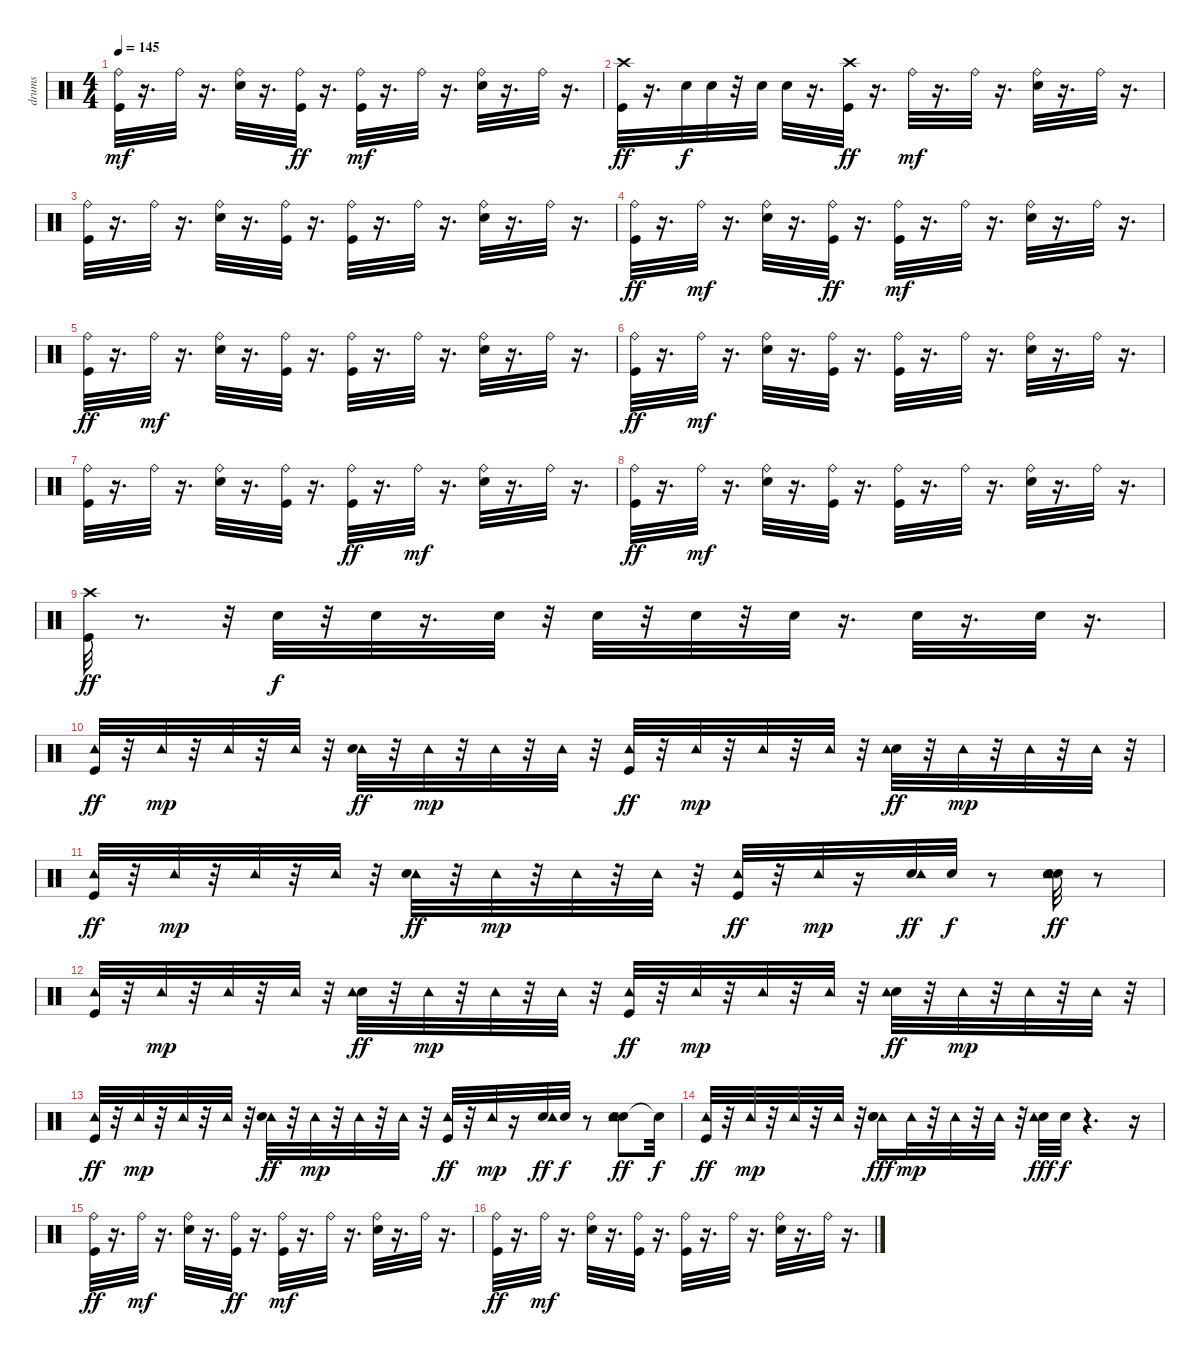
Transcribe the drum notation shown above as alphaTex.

\track ("drums" "drums") {instrument percussion}
\staff {score}
\articulation defaults
\ts (4 4)
\tempo 145
\clef neutral
\ks c
("Kick (hit)" "Ride (bell)").32{dy mf} r.16{d} "Ride (bell)".32 r.16{d} ("Snare (hit) 2" "Ride (bell)").32 r.16{d} ("Ride (bell)" "Kick (hit)").32{dy ff} r.16{d} ("Kick (hit)" "Ride (bell)").32{dy mf} r.16{d} "Ride (bell)".32 r.16{d} ("Snare (hit) 2" "Ride (bell)").32 r.16{d} "Ride (bell)".32 r.16{d} |
("Crash high (hit)" "Kick (hit)").32{dy ff} r.16{d} "Snare (hit) 2".32{dy f} "Snare (hit) 2".32 r.32 "Snare (hit) 2".32 "Snare (hit) 2".32 r.16{d} ("Crash high (hit)" "Kick (hit)").32{dy ff} r.16{d} "Ride (bell)".32{dy mf} r.16{d} "Ride (bell)".32 r.16{d} ("Ride (bell)" "Snare (hit) 2").32 r.16{d} "Ride (bell)".32 r.16{d} |
("Kick (hit)" "Ride (bell)").32 r.16{d} "Ride (bell)".32 r.16{d} ("Snare (hit) 2" "Ride (bell)").32 r.16{d} ("Kick (hit)" "Ride (bell)").32 r.16{d} ("Kick (hit)" "Ride (bell)").32 r.16{d} "Ride (bell)".32 r.16{d} ("Ride (bell)" "Snare (hit) 2").32 r.16{d} "Ride (bell)".32 r.16{d} |
("Ride (bell)" "Kick (hit)").32{dy ff} r.16{d} "Ride (bell)".32{dy mf} r.16{d} ("Ride (bell)" "Snare (hit) 2").32 r.16{d} ("Ride (bell)" "Kick (hit)").32{dy ff} r.16{d} ("Kick (hit)" "Ride (bell)").32{dy mf} r.16{d} "Ride (bell)".32 r.16{d} ("Ride (bell)" "Snare (hit) 2").32 r.16{d} "Ride (bell)".32 r.16{d} |
("Ride (bell)" "Kick (hit)").32{dy ff} r.16{d} "Ride (bell)".32{dy mf} r.16{d} ("Ride (bell)" "Snare (hit) 2").32 r.16{d} ("Kick (hit)" "Ride (bell)").32 r.16{d} ("Kick (hit)" "Ride (bell)").32 r.16{d} "Ride (bell)".32 r.16{d} ("Ride (bell)" "Snare (hit) 2").32 r.16{d} "Ride (bell)".32 r.16{d} |
("Ride (bell)" "Kick (hit)").32{dy ff} r.16{d} "Ride (bell)".32{dy mf} r.16{d} ("Snare (hit) 2" "Ride (bell)").32 r.16{d} ("Kick (hit)" "Ride (bell)").32 r.16{d} ("Kick (hit)" "Ride (bell)").32 r.16{d} "Ride (bell)".32 r.16{d} ("Snare (hit) 2" "Ride (bell)").32 r.16{d} "Ride (bell)".32 r.16{d} |
("Kick (hit)" "Ride (bell)").32 r.16{d} "Ride (bell)".32 r.16{d} ("Snare (hit) 2" "Ride (bell)").32 r.16{d} ("Kick (hit)" "Ride (bell)").32 r.16{d} ("Ride (bell)" "Kick (hit)").32{dy ff} r.16{d} "Ride (bell)".32{dy mf} r.16{d} ("Snare (hit) 2" "Ride (bell)").32 r.16{d} "Ride (bell)".32 r.16{d} |
("Ride (bell)" "Kick (hit)").32{dy ff} r.16{d} "Ride (bell)".32{dy mf} r.16{d} ("Ride (bell)" "Snare (hit) 2").32 r.16{d} ("Kick (hit)" "Ride (bell)").32 r.16{d} ("Kick (hit)" "Ride (bell)").32 r.16{d} "Ride (bell)".32 r.16{d} ("Snare (hit) 2" "Ride (bell)").32 r.16{d} "Ride (bell)".32 r.16{d} |
("Crash high (hit)" "Kick (hit)").32{dy ff} r.8{d} r.32 "Snare (hit) 2".32{dy f} r.32 "Snare (hit) 2".32 r.16{d} "Snare (hit) 2".32 r.32 "Snare (hit) 2".32 r.32 "Snare (hit) 2".32 r.32 "Snare (hit) 2".32 r.16{d} "Snare (hit) 2".32 r.16{d} "Snare (hit) 2".32 r.16{d} |
("Tambourine (hit)" "Kick (hit)").32{dy ff} r.32 "Tambourine (hit)".32{dy mp} r.32 "Tambourine (hit)".32 r.32 "Tambourine (hit)".32 r.32 ("Tambourine (hit)" "Snare (hit) 2").32{dy ff} r.32 "Tambourine (hit)".32{dy mp} r.32 "Tambourine (hit)".32 r.32 "Tambourine (hit)".32 r.32 ("Tambourine (hit)" "Kick (hit)").32{dy ff} r.32 "Tambourine (hit)".32{dy mp} r.32 "Tambourine (hit)".32 r.32 "Tambourine (hit)".32 r.32 ("Snare (hit) 2" "Tambourine (hit)").32{dy ff} r.32 "Tambourine (hit)".32{dy mp} r.32 "Tambourine (hit)".32 r.32 "Tambourine (hit)".32 r.32 |
("Tambourine (hit)" "Kick (hit)").32{dy ff} r.32 "Tambourine (hit)".32{dy mp} r.32 "Tambourine (hit)".32 r.32 "Tambourine (hit)".32 r.32 ("Tambourine (hit)" "Snare (hit) 2").32{dy ff} r.32 "Tambourine (hit)".32{dy mp} r.32 "Tambourine (hit)".32 r.32 "Tambourine (hit)".32 r.32 ("Tambourine (hit)" "Kick (hit)").32{dy ff} r.32 "Tambourine (hit)".32{dy mp} r.16 ("Snare (hit) 2" "Tambourine (hit)").32{dy ff} "Snare (hit) 2".32{dy f} r.8 ("Snare (hit) 2" "Tambourine (hit)" "Snare (hit) 2").32{dy ff} r.8 |
("Tambourine (hit)" "Kick (hit)").32 r.32 "Tambourine (hit)".32{dy mp} r.32 "Tambourine (hit)".32 r.32 "Tambourine (hit)".32 r.32 ("Snare (hit) 2" "Tambourine (hit)").32{dy ff} r.32 "Tambourine (hit)".32{dy mp} r.32 "Tambourine (hit)".32 r.32 "Tambourine (hit)".32 r.32 ("Tambourine (hit)" "Kick (hit)").32{dy ff} r.32 "Tambourine (hit)".32{dy mp} r.32 "Tambourine (hit)".32 r.32 "Tambourine (hit)".32 r.32 ("Snare (hit) 2" "Tambourine (hit)").32{dy ff} r.32 "Tambourine (hit)".32{dy mp} r.32 "Tambourine (hit)".32 r.32 "Tambourine (hit)".32 r.32 |
("Tambourine (hit)" "Kick (hit)").32{dy ff} r.32 "Tambourine (hit)".32{dy mp} r.32 "Tambourine (hit)".32 r.32 "Tambourine (hit)".32 r.32 ("Tambourine (hit)" "Snare (hit) 2").32{dy ff} r.32 "Tambourine (hit)".32{dy mp} r.32 "Tambourine (hit)".32 r.32 "Tambourine (hit)".32 r.32 ("Kick (hit)" "Tambourine (hit)").32{dy ff} r.32 "Tambourine (hit)".32{dy mp} r.16 ("Snare (hit) 2" "Tambourine (hit)").32{dy ff} "Snare (hit) 2".32{dy f} r.8 ("Snare (hit) 2" "Tambourine (hit)" "Snare (hit) 2").8{dy ff} "Snare (hit)"{t}.32{dy f} |
("Kick (hit)" "Tambourine (hit)").32{dy ff} r.32 "Tambourine (hit)".32{dy mp} r.32 "Tambourine (hit)".32 r.32 "Tambourine (hit)".32 r.32 ("Tambourine (hit)" "Snare (hit) 2" "Snare (hit) 2").16{dy fff} "Tambourine (hit)".32{dy mp} r.32 "Tambourine (hit)".32 r.32 "Tambourine (hit)".32 r.32 ("Snare (hit) 2" "Tambourine (hit)").32{dy fff} "Snare (hit) 2".32{dy f} r.4{d} r.16 |
("Ride (bell)" "Kick (hit)").32{dy ff} r.16{d} "Ride (bell)".32{dy mf} r.16{d} ("Snare (hit) 2" "Ride (bell)").32 r.16{d} ("Ride (bell)" "Kick (hit)").32{dy ff} r.16{d} ("Kick (hit)" "Ride (bell)").32{dy mf} r.16{d} "Ride (bell)".32 r.16{d} ("Ride (bell)" "Snare (hit) 2").32 r.16{d} "Ride (bell)".32 r.16{d} |
("Ride (bell)" "Kick (hit)").32{dy ff} r.16{d} "Ride (bell)".32{dy mf} r.16{d} ("Ride (bell)" "Snare (hit) 2").32 r.16{d} ("Kick (hit)" "Ride (bell)").32 r.16{d} ("Kick (hit)" "Ride (bell)").32 r.16{d} "Ride (bell)".32 r.16{d} ("Snare (hit) 2" "Ride (bell)").32 r.16{d} "Ride (bell)".32 r.16{d}
